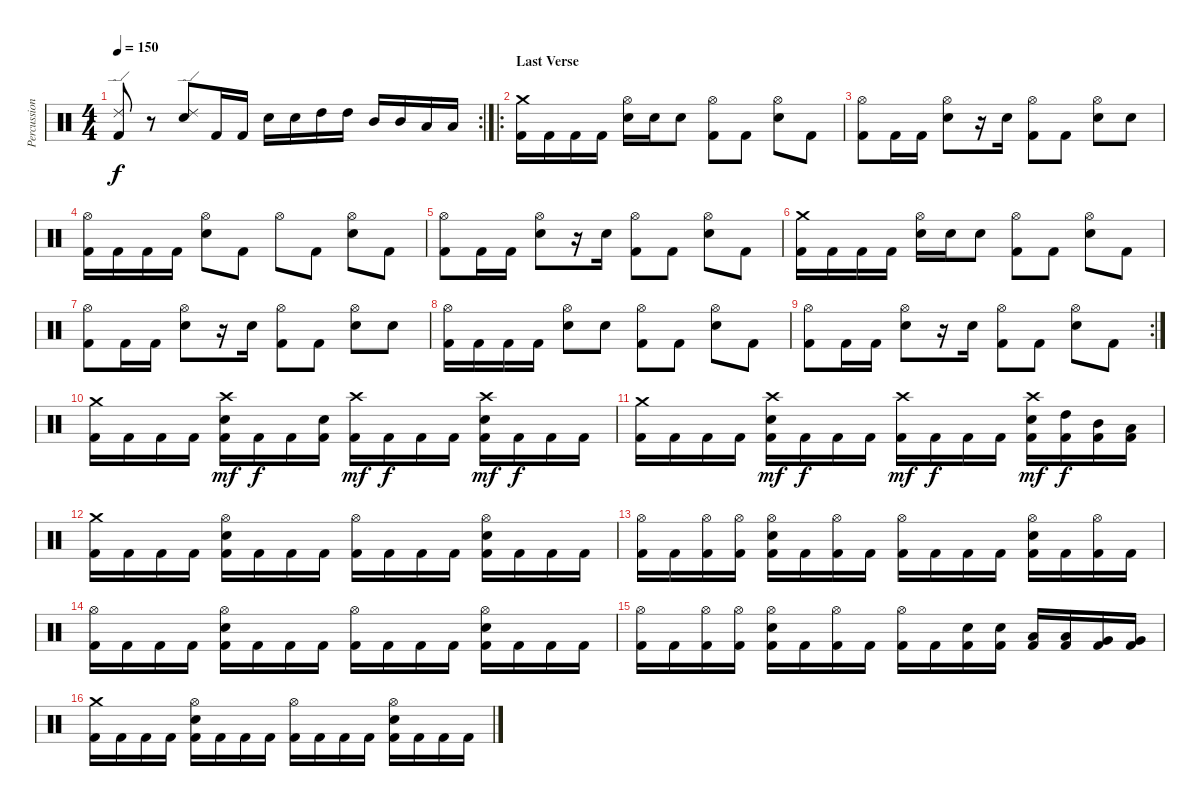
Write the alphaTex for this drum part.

\track ("Percussion" "Percussion") {instrument percussion}
\staff {score}
\articulation defaults
\rc 2
\ts (4 4)
\tempo 150
\clef neutral
\ks c
("Kick (hit) 2" "Ride (edge) 2").8{dy f} r.8 ("Electric Snare (hit)" "Ride (edge) 2").8 "Kick (hit) 2".16 "Kick (hit) 2".16 "Electric Snare (hit)".16 "Electric Snare (hit)".16 "High Tom (hit)".16 "High Tom (hit)".16 "Mid Tom (hit)".16 "Mid Tom (hit)".16 "Low Tom (hit)".16 "Low Tom (hit)".16 |
\ro
\section ("" "Last Verse")
("Kick (hit) 2" "Crash medium (hit)").16 "Kick (hit) 2".16 "Kick (hit) 2".16 "Kick (hit) 2".16 ("Electric Snare (hit)" "Hi-Hat (open)").16 "Electric Snare (hit)".16 "Electric Snare (hit)".8 ("Kick (hit) 2" "Hi-Hat (open)").8 "Kick (hit) 2".8 ("Electric Snare (hit)" "Hi-Hat (open)").8 "Kick (hit) 2".8 |
("Kick (hit) 2" "Hi-Hat (open)").8 "Kick (hit) 2".16 "Kick (hit) 2".16 ("Electric Snare (hit)" "Hi-Hat (open)").8 r.16 "Electric Snare (hit)".16 ("Kick (hit) 2" "Hi-Hat (open)").8 "Kick (hit) 2".8 ("Electric Snare (hit)" "Hi-Hat (open)").8 "Electric Snare (hit)".8 |
("Kick (hit) 2" "Hi-Hat (open)").16 "Kick (hit) 2".16 "Kick (hit) 2".16 "Kick (hit) 2".16 ("Electric Snare (hit)" "Hi-Hat (open)").8 "Kick (hit) 2".8 "Hi-Hat (open)".8 "Kick (hit) 2".8 ("Electric Snare (hit)" "Hi-Hat (open)").8 "Kick (hit) 2".8 |
("Kick (hit) 2" "Hi-Hat (open)").8 "Kick (hit) 2".16 "Kick (hit) 2".16 ("Electric Snare (hit)" "Hi-Hat (open)").8 r.16 "Electric Snare (hit)".16 ("Kick (hit) 2" "Hi-Hat (open)").8 "Kick (hit) 2".8 ("Electric Snare (hit)" "Hi-Hat (open)").8 "Kick (hit) 2".8 |
("Kick (hit) 2" "Crash medium (hit)").16 "Kick (hit) 2".16 "Kick (hit) 2".16 "Kick (hit) 2".16 ("Electric Snare (hit)" "Hi-Hat (open)").16 "Electric Snare (hit)".16 "Electric Snare (hit)".8 ("Kick (hit) 2" "Hi-Hat (open)").8 "Kick (hit) 2".8 ("Electric Snare (hit)" "Hi-Hat (open)").8 "Kick (hit) 2".8 |
("Kick (hit) 2" "Hi-Hat (open)").8 "Kick (hit) 2".16 "Kick (hit) 2".16 ("Electric Snare (hit)" "Hi-Hat (open)").8 r.16 "Electric Snare (hit)".16 ("Kick (hit) 2" "Hi-Hat (open)").8 "Kick (hit) 2".8 ("Electric Snare (hit)" "Hi-Hat (open)").8 "Electric Snare (hit)".8 |
("Kick (hit) 2" "Hi-Hat (open)").16 "Kick (hit) 2".16 "Kick (hit) 2".16 "Kick (hit) 2".16 ("Electric Snare (hit)" "Hi-Hat (open)").8 "Electric Snare (hit)".8 ("Kick (hit) 2" "Hi-Hat (open)").8 "Kick (hit) 2".8 ("Electric Snare (hit)" "Hi-Hat (open)").8 "Kick (hit) 2".8 |
\rc 2
("Kick (hit) 2" "Hi-Hat (open)").8 "Kick (hit) 2".16 "Kick (hit) 2".16 ("Electric Snare (hit)" "Hi-Hat (open)").8 r.16 "Electric Snare (hit)".16 ("Kick (hit) 2" "Hi-Hat (open)").8 "Kick (hit) 2".8 ("Electric Snare (hit)" "Hi-Hat (open)").8 "Kick (hit) 2".8 |
("Kick (hit) 2" "Crash medium (hit)").16 "Kick (hit) 2".16 "Kick (hit) 2".16 "Kick (hit) 2".16 ("Kick (hit) 2" "Electric Snare (hit)" "Crash high (hit)").16{dy mf} "Kick (hit) 2".16{dy f} "Kick (hit) 2".16 ("Kick (hit) 2" "Electric Snare (hit)").16 ("Kick (hit) 2" "Crash high (hit)").16{dy mf} "Kick (hit) 2".16{dy f} "Kick (hit) 2".16 "Kick (hit) 2".16 ("Kick (hit) 2" "Electric Snare (hit)" "Crash high (hit)").16{dy mf} "Kick (hit) 2".16{dy f} "Kick (hit) 2".16 "Kick (hit) 2".16 |
("Kick (hit) 2" "Crash medium (hit)").16 "Kick (hit) 2".16 "Kick (hit) 2".16 "Kick (hit) 2".16 ("Kick (hit) 2" "Electric Snare (hit)" "Crash high (hit)").16{dy mf} "Kick (hit) 2".16{dy f} "Kick (hit) 2".16 "Kick (hit) 2".16 ("Kick (hit) 2" "Crash high (hit)").16{dy mf} "Kick (hit) 2".16{dy f} "Kick (hit) 2".16 "Kick (hit) 2".16 ("Kick (hit) 2" "Electric Snare (hit)" "Crash high (hit)").16{dy mf} ("Kick (hit) 2" "High Tom (hit)").16{dy f} ("Kick (hit) 2" "Mid Tom (hit)").16 ("Kick (hit) 2" "Low Tom (hit)").16 |
("Kick (hit) 2" "Crash medium (hit)").16 "Kick (hit) 2".16 "Kick (hit) 2".16 "Kick (hit) 2".16 ("Kick (hit) 2" "Electric Snare (hit)" "Hi-Hat (open)").16 "Kick (hit) 2".16 "Kick (hit) 2".16 "Kick (hit) 2".16 ("Kick (hit) 2" "Hi-Hat (open)").16 "Kick (hit) 2".16 "Kick (hit) 2".16 "Kick (hit) 2".16 ("Kick (hit) 2" "Electric Snare (hit)" "Hi-Hat (open)").16 "Kick (hit) 2".16 "Kick (hit) 2".16 "Kick (hit) 2".16 |
("Kick (hit) 2" "Hi-Hat (open)").16 "Kick (hit) 2".16 ("Kick (hit) 2" "Hi-Hat (open)").16 ("Kick (hit) 2" "Hi-Hat (open)").16 ("Kick (hit) 2" "Electric Snare (hit)" "Hi-Hat (open)").16 "Kick (hit) 2".16 ("Kick (hit) 2" "Hi-Hat (open)").16 "Kick (hit) 2".16 ("Kick (hit) 2" "Hi-Hat (open)").16 "Kick (hit) 2".16 "Kick (hit) 2".16 "Kick (hit) 2".16 ("Kick (hit) 2" "Electric Snare (hit)" "Hi-Hat (open)").16 "Kick (hit) 2".16 ("Kick (hit) 2" "Hi-Hat (open)").16 "Kick (hit) 2".16 |
("Kick (hit) 2" "Hi-Hat (open)").16 "Kick (hit) 2".16 "Kick (hit) 2".16 "Kick (hit) 2".16 ("Kick (hit) 2" "Electric Snare (hit)" "Hi-Hat (open)").16 "Kick (hit) 2".16 "Kick (hit) 2".16 "Kick (hit) 2".16 ("Kick (hit) 2" "Hi-Hat (open)").16 "Kick (hit) 2".16 "Kick (hit) 2".16 "Kick (hit) 2".16 ("Kick (hit) 2" "Electric Snare (hit)" "Hi-Hat (open)").16 "Kick (hit) 2".16 "Kick (hit) 2".16 "Kick (hit) 2".16 |
("Kick (hit) 2" "Hi-Hat (open)").16 "Kick (hit) 2".16 ("Kick (hit) 2" "Hi-Hat (open)").16 ("Kick (hit) 2" "Hi-Hat (open)").16 ("Kick (hit) 2" "Electric Snare (hit)" "Hi-Hat (open)").16 "Kick (hit) 2".16 ("Kick (hit) 2" "Hi-Hat (open)").16 "Kick (hit) 2".16 ("Kick (hit) 2" "Hi-Hat (open)").16 "Kick (hit) 2".16 ("Kick (hit) 2" "Electric Snare (hit)").16 ("Kick (hit) 2" "Electric Snare (hit)").16 ("Kick (hit) 2" "Low Tom (hit)").16 ("Kick (hit) 2" "Low Tom (hit)").16 ("Kick (hit) 2" "Very Low Tom (hit)").16 ("Kick (hit) 2" "Very Low Tom (hit)").16 |
("Kick (hit) 2" "Crash medium (hit)").16 "Kick (hit) 2".16 "Kick (hit) 2".16 "Kick (hit) 2".16 ("Kick (hit) 2" "Electric Snare (hit)" "Hi-Hat (open)").16 "Kick (hit) 2".16 "Kick (hit) 2".16 "Kick (hit) 2".16 ("Kick (hit) 2" "Hi-Hat (open)").16 "Kick (hit) 2".16 "Kick (hit) 2".16 "Kick (hit) 2".16 ("Kick (hit) 2" "Electric Snare (hit)" "Hi-Hat (open)").16 "Kick (hit) 2".16 "Kick (hit) 2".16 "Kick (hit) 2".16
